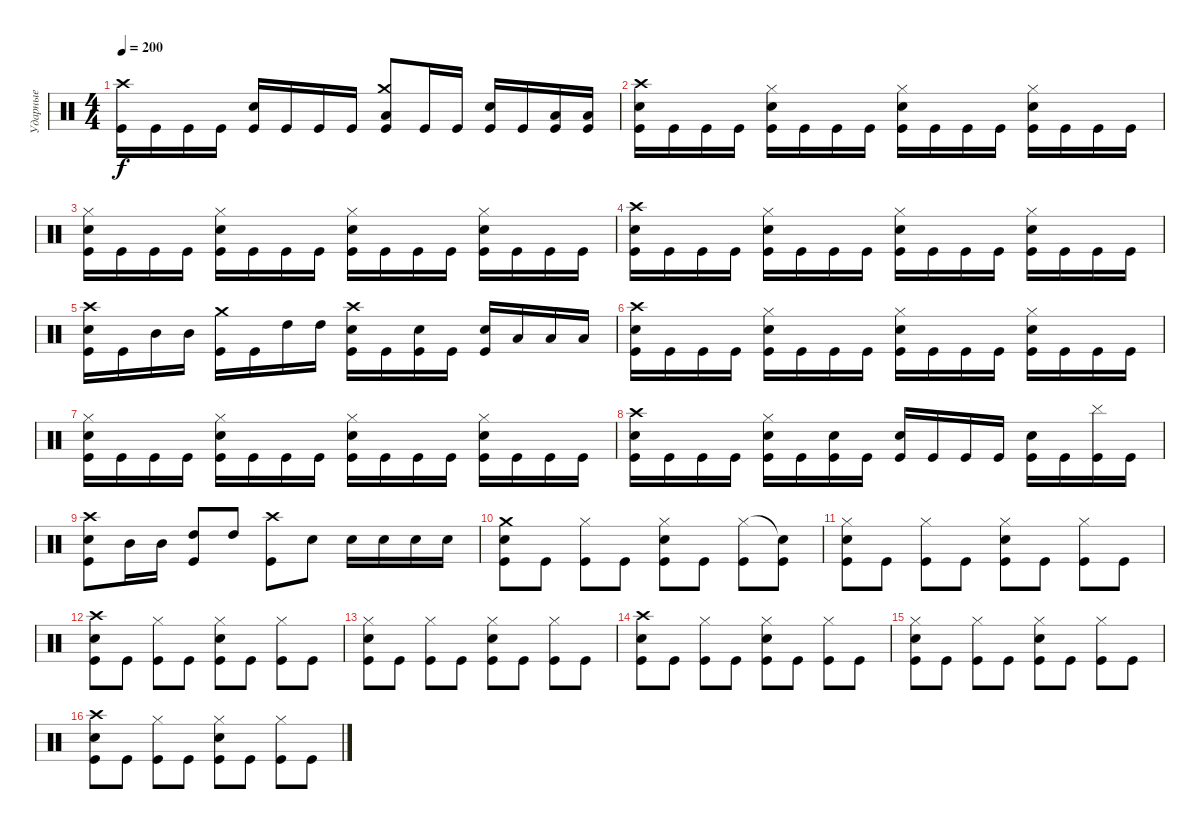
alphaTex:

\track ("Ударные" "Ударные") {instrument percussion}
\staff {score}
\articulation defaults
\ts (4 4)
\tempo 200
\clef neutral
\ks c
("Crash high (hit)" "Kick (hit)").16{dy f} "Kick (hit)".16 "Kick (hit)".16 "Kick (hit)".16 ("Electric Snare (hit)" "Kick (hit)").16 "Kick (hit)".16 "Kick (hit)".16 "Kick (hit)".16 ("Crash medium (hit)" "Low Tom (hit)" "Kick (hit)").8 "Kick (hit)".16 "Kick (hit)".16 ("Electric Snare (hit)" "Kick (hit)").16 "Kick (hit)".16 ("Low Tom (hit)" "Kick (hit)").16 ("Low Tom (hit)" "Kick (hit)").16 |
("Crash high (hit)" "Electric Snare (hit)" "Kick (hit)").16 "Kick (hit)".16 "Kick (hit)".16 "Kick (hit)".16 ("Hi-Hat (closed)" "Electric Snare (hit)" "Kick (hit)").16 "Kick (hit)".16 "Kick (hit)".16 "Kick (hit)".16 ("Hi-Hat (closed)" "Electric Snare (hit)" "Kick (hit)").16 "Kick (hit)".16 "Kick (hit)".16 "Kick (hit)".16 ("Hi-Hat (closed)" "Electric Snare (hit)" "Kick (hit)").16 "Kick (hit)".16 "Kick (hit)".16 "Kick (hit)".16 |
("Hi-Hat (closed)" "Electric Snare (hit)" "Kick (hit)").16 "Kick (hit)".16 "Kick (hit)".16 "Kick (hit)".16 ("Hi-Hat (closed)" "Electric Snare (hit)" "Kick (hit)").16 "Kick (hit)".16 "Kick (hit)".16 "Kick (hit)".16 ("Hi-Hat (closed)" "Electric Snare (hit)" "Kick (hit)").16 "Kick (hit)".16 "Kick (hit)".16 "Kick (hit)".16 ("Hi-Hat (closed)" "Electric Snare (hit)" "Kick (hit)").16 "Kick (hit)".16 "Kick (hit)".16 "Kick (hit)".16 |
("Crash high (hit)" "Electric Snare (hit)" "Kick (hit)").16 "Kick (hit)".16 "Kick (hit)".16 "Kick (hit)".16 ("Hi-Hat (closed)" "Electric Snare (hit)" "Kick (hit)").16 "Kick (hit)".16 "Kick (hit)".16 "Kick (hit)".16 ("Hi-Hat (closed)" "Electric Snare (hit)" "Kick (hit)").16 "Kick (hit)".16 "Kick (hit)".16 "Kick (hit)".16 ("Hi-Hat (closed)" "Electric Snare (hit)" "Kick (hit)").16 "Kick (hit)".16 "Kick (hit)".16 "Kick (hit)".16 |
("Crash high (hit)" "Electric Snare (hit)" "Kick (hit)").16 "Kick (hit)".16 "Mid Tom (hit)".16 "Mid Tom (hit)".16 ("Crash medium (hit)" "Kick (hit)").16 "Kick (hit)".16 "High Tom (hit)".16 "High Tom (hit)".16 ("Crash high (hit)" "Electric Snare (hit)" "Kick (hit)").16 "Kick (hit)".16 ("Electric Snare (hit)" "Kick (hit)").16 "Kick (hit)".16 ("Electric Snare (hit)" "Kick (hit)").16 "Low Tom (hit)".16 "Low Tom (hit)".16 "Low Tom (hit)".16 |
("Crash high (hit)" "Electric Snare (hit)" "Kick (hit)").16 "Kick (hit)".16 "Kick (hit)".16 "Kick (hit)".16 ("Hi-Hat (closed)" "Electric Snare (hit)" "Kick (hit)").16 "Kick (hit)".16 "Kick (hit)".16 "Kick (hit)".16 ("Hi-Hat (closed)" "Electric Snare (hit)" "Kick (hit)").16 "Kick (hit)".16 "Kick (hit)".16 "Kick (hit)".16 ("Hi-Hat (closed)" "Electric Snare (hit)" "Kick (hit)").16 "Kick (hit)".16 "Kick (hit)".16 "Kick (hit)".16 |
("Hi-Hat (closed)" "Electric Snare (hit)" "Kick (hit)").16 "Kick (hit)".16 "Kick (hit)".16 "Kick (hit)".16 ("Hi-Hat (closed)" "Electric Snare (hit)" "Kick (hit)").16 "Kick (hit)".16 "Kick (hit)".16 "Kick (hit)".16 ("Hi-Hat (closed)" "Electric Snare (hit)" "Kick (hit)").16 "Kick (hit)".16 "Kick (hit)".16 "Kick (hit)".16 ("Hi-Hat (closed)" "Electric Snare (hit)" "Kick (hit)").16 "Kick (hit)".16 "Kick (hit)".16 "Kick (hit)".16 |
("Crash high (hit)" "Electric Snare (hit)" "Kick (hit)").16 "Kick (hit)".16 "Kick (hit)".16 "Kick (hit)".16 ("Hi-Hat (closed)" "Electric Snare (hit)" "Kick (hit)").16 "Kick (hit)".16 ("Electric Snare (hit)" "Kick (hit)").16 "Kick (hit)".16 ("Electric Snare (hit)" "Kick (hit)").16 "Kick (hit)".16 "Kick (hit)".16 "Kick (hit)".16 ("Electric Snare (hit)" "Kick (hit)").16 "Kick (hit)".16 ("Cymbal (hit)" "Kick (hit)").16 "Kick (hit)".16 |
("Crash high (hit)" "Electric Snare (hit)" "Kick (hit)").8 "Mid Tom (hit)".16 "Mid Tom (hit)".16 ("High Tom (hit)" "Kick (hit)").8 "High Tom (hit)".8 ("Crash high (hit)" "Kick (hit)").8 "Electric Snare (hit)".8 "Electric Snare (hit)".16 "Electric Snare (hit)".16 "Electric Snare (hit)".16 "Electric Snare (hit)".16 |
("Crash medium (hit)" "Electric Snare (hit)" "Kick (hit)").8 "Kick (hit)".8 ("Hi-Hat (closed)" "Kick (hit)").8 "Kick (hit)".8 ("Hi-Hat (closed)" "Electric Snare (hit)" "Kick (hit)").8 "Kick (hit)".8 ("Hi-Hat (closed)" "Kick (hit)").8 ("Snare (hit)"{t} "Kick (hit)").8 |
("Hi-Hat (closed)" "Electric Snare (hit)" "Kick (hit)").8 "Kick (hit)".8 ("Hi-Hat (closed)" "Kick (hit)").8 "Kick (hit)".8 ("Hi-Hat (closed)" "Electric Snare (hit)" "Kick (hit)").8 "Kick (hit)".8 ("Hi-Hat (closed)" "Kick (hit)").8 "Kick (hit)".8 |
("Crash high (hit)" "Electric Snare (hit)" "Kick (hit)").8 "Kick (hit)".8 ("Hi-Hat (closed)" "Kick (hit)").8 "Kick (hit)".8 ("Hi-Hat (closed)" "Electric Snare (hit)" "Kick (hit)").8 "Kick (hit)".8 ("Hi-Hat (closed)" "Kick (hit)").8 "Kick (hit)".8 |
("Hi-Hat (closed)" "Electric Snare (hit)" "Kick (hit)").8 "Kick (hit)".8 ("Hi-Hat (closed)" "Kick (hit)").8 "Kick (hit)".8 ("Hi-Hat (closed)" "Electric Snare (hit)" "Kick (hit)").8 "Kick (hit)".8 ("Hi-Hat (closed)" "Kick (hit)").8 "Kick (hit)".8 |
("Crash high (hit)" "Electric Snare (hit)" "Kick (hit)").8 "Kick (hit)".8 ("Hi-Hat (closed)" "Kick (hit)").8 "Kick (hit)".8 ("Hi-Hat (closed)" "Electric Snare (hit)" "Kick (hit)").8 "Kick (hit)".8 ("Hi-Hat (closed)" "Kick (hit)").8 "Kick (hit)".8 |
("Hi-Hat (closed)" "Electric Snare (hit)" "Kick (hit)").8 "Kick (hit)".8 ("Hi-Hat (closed)" "Kick (hit)").8 "Kick (hit)".8 ("Hi-Hat (closed)" "Electric Snare (hit)" "Kick (hit)").8 "Kick (hit)".8 ("Hi-Hat (closed)" "Kick (hit)").8 "Kick (hit)".8 |
("Crash high (hit)" "Electric Snare (hit)" "Kick (hit)").8 "Kick (hit)".8 ("Hi-Hat (closed)" "Kick (hit)").8 "Kick (hit)".8 ("Hi-Hat (closed)" "Electric Snare (hit)" "Kick (hit)").8 "Kick (hit)".8 ("Hi-Hat (closed)" "Kick (hit)").8 "Kick (hit)".8
